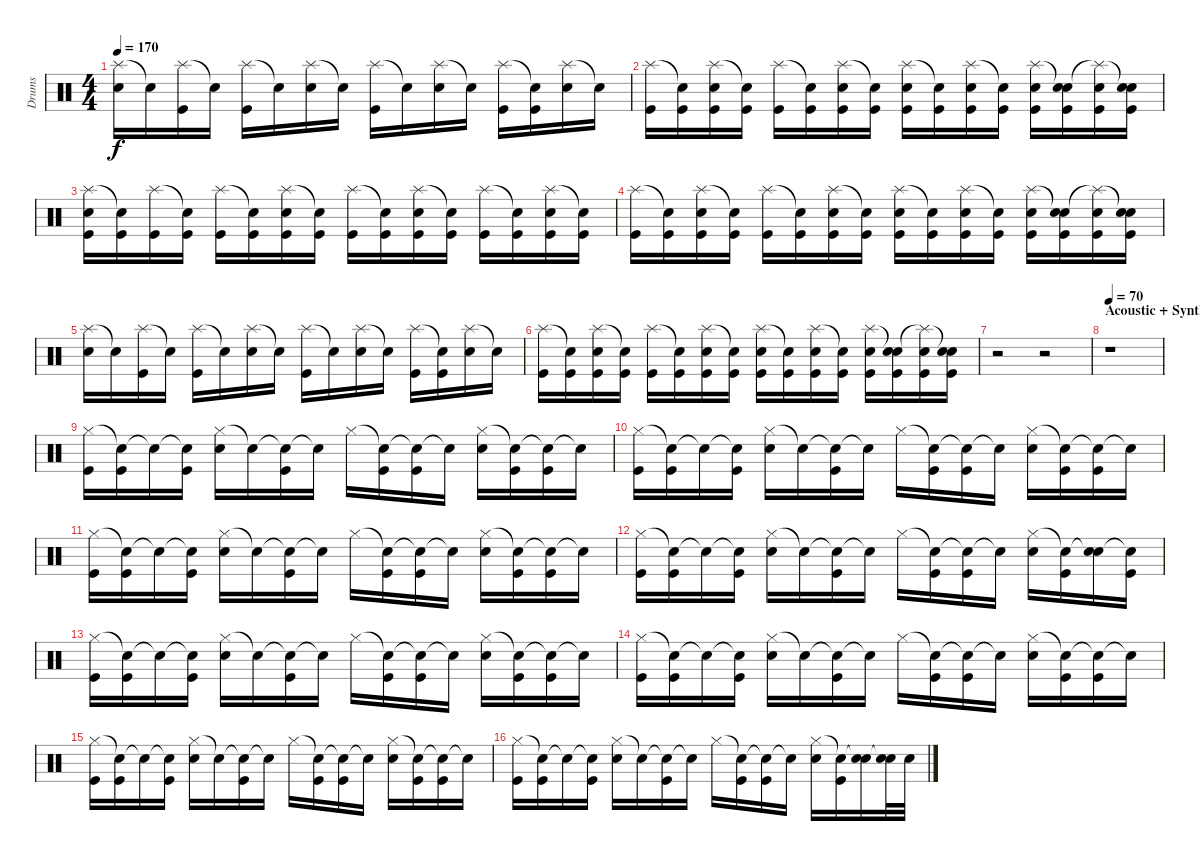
\track ("Drums" "Drums") {instrument percussion}
\staff {score}
\articulation defaults
\ts (4 4)
\tempo 170
\clef neutral
\ks c
("Splash (hit)" "Electric Snare (hit)").16{dy f} "Snare (hit)"{t}.16 ("Splash (hit)" "Kick (hit)").16 "Snare (hit)"{t}.16 ("Splash (hit)" "Kick (hit)").16 "Snare (hit)"{t}.16 ("Splash (hit)" "Electric Snare (hit)").16 "Snare (hit)"{t}.16 ("Splash (hit)" "Kick (hit)").16 "Snare (hit)"{t}.16 ("Splash (hit)" "Electric Snare (hit)").16 "Snare (hit)"{t}.16 ("Splash (hit)" "Kick (hit)").16 ("Snare (hit)"{t} "Kick (hit)").16 ("Splash (hit)" "Electric Snare (hit)").16 "Snare (hit)"{t}.16 |
("Splash (hit)" "Kick (hit)").16 ("Snare (hit)"{t} "Kick (hit)").16 ("Splash (hit)" "Electric Snare (hit)" "Kick (hit)").16 ("Snare (hit)"{t} "Kick (hit)").16 ("Splash (hit)" "Kick (hit)").16 ("Snare (hit)"{t} "Kick (hit)").16 ("Splash (hit)" "Electric Snare (hit)" "Kick (hit)").16 ("Snare (hit)"{t} "Kick (hit)").16 ("Splash (hit)" "Electric Snare (hit)" "Kick (hit)").16 ("Snare (hit)"{t} "Kick (hit)").16 ("Splash (hit)" "Electric Snare (hit)" "Kick (hit)").16 ("Snare (hit)"{t} "Kick (hit)").16 ("Splash (hit)" "Electric Snare (hit)" "Kick (hit)").16 ("Snare (hit)"{t} "Electric Snare (hit)" "Kick (hit)").16 ("Splash (hit)"{t} "Electric Snare (hit)" "Kick (hit)").16 ("Snare (hit)"{t} "Electric Snare (hit)" "Kick (hit)").16 |
("Splash (hit)" "Electric Snare (hit)" "Kick (hit)").16 ("Snare (hit)"{t} "Kick (hit)").16 ("Splash (hit)" "Kick (hit)").16 ("Snare (hit)"{t} "Kick (hit)").16 ("Splash (hit)" "Kick (hit)").16 ("Snare (hit)"{t} "Kick (hit)").16 ("Splash (hit)" "Electric Snare (hit)" "Kick (hit)").16 ("Snare (hit)"{t} "Kick (hit)").16 ("Splash (hit)" "Kick (hit)").16 ("Snare (hit)"{t} "Kick (hit)").16 ("Splash (hit)" "Electric Snare (hit)" "Kick (hit)").16 ("Snare (hit)"{t} "Kick (hit)").16 ("Splash (hit)" "Kick (hit)").16 ("Snare (hit)"{t} "Kick (hit)").16 ("Splash (hit)" "Electric Snare (hit)" "Kick (hit)").16 ("Snare (hit)"{t} "Kick (hit)").16 |
("Splash (hit)" "Kick (hit)").16 ("Snare (hit)"{t} "Kick (hit)").16 ("Splash (hit)" "Electric Snare (hit)" "Kick (hit)").16 ("Snare (hit)"{t} "Kick (hit)").16 ("Splash (hit)" "Kick (hit)").16 ("Snare (hit)"{t} "Kick (hit)").16 ("Splash (hit)" "Electric Snare (hit)" "Kick (hit)").16 ("Snare (hit)"{t} "Kick (hit)").16 ("Splash (hit)" "Electric Snare (hit)" "Kick (hit)").16 ("Snare (hit)"{t} "Kick (hit)").16 ("Splash (hit)" "Electric Snare (hit)" "Kick (hit)").16 ("Snare (hit)"{t} "Kick (hit)").16 ("Splash (hit)" "Electric Snare (hit)" "Kick (hit)").16 ("Snare (hit)"{t} "Electric Snare (hit)" "Kick (hit)").16 ("Splash (hit)"{t} "Electric Snare (hit)" "Kick (hit)").16 ("Snare (hit)"{t} "Electric Snare (hit)" "Kick (hit)").16 |
("Splash (hit)" "Electric Snare (hit)").16 "Snare (hit)"{t}.16 ("Splash (hit)" "Kick (hit)").16 "Snare (hit)"{t}.16 ("Splash (hit)" "Kick (hit)").16 "Snare (hit)"{t}.16 ("Splash (hit)" "Electric Snare (hit)").16 "Snare (hit)"{t}.16 ("Splash (hit)" "Kick (hit)").16 "Snare (hit)"{t}.16 ("Splash (hit)" "Electric Snare (hit)").16 "Snare (hit)"{t}.16 ("Splash (hit)" "Kick (hit)").16 ("Snare (hit)"{t} "Kick (hit)").16 ("Splash (hit)" "Electric Snare (hit)").16 "Snare (hit)"{t}.16 |
("Splash (hit)" "Kick (hit)").16 ("Snare (hit)"{t} "Kick (hit)").16 ("Splash (hit)" "Electric Snare (hit)" "Kick (hit)").16 ("Snare (hit)"{t} "Kick (hit)").16 ("Splash (hit)" "Kick (hit)").16 ("Snare (hit)"{t} "Kick (hit)").16 ("Splash (hit)" "Electric Snare (hit)" "Kick (hit)").16 ("Snare (hit)"{t} "Kick (hit)").16 ("Splash (hit)" "Electric Snare (hit)" "Kick (hit)").16 ("Snare (hit)"{t} "Kick (hit)").16 ("Splash (hit)" "Electric Snare (hit)" "Kick (hit)").16 ("Snare (hit)"{t} "Kick (hit)").16 ("Splash (hit)" "Electric Snare (hit)" "Kick (hit)").16 ("Snare (hit)"{t} "Electric Snare (hit)" "Kick (hit)").16 ("Splash (hit)"{t} "Electric Snare (hit)" "Kick (hit)").16 ("Snare (hit)"{t} "Electric Snare (hit)" "Kick (hit)").16 |
r.2 r.2 |
\section ("" "Acoustic + Synth Interlude")
\tempo 70
r.1 |
("Hi-Hat (closed)" "Kick (hit)").16 ("Snare (hit)"{t} "Kick (hit)").16 "Snare (hit)"{t}.16 ("Snare (hit)"{t} "Kick (hit)").16 ("Hi-Hat (closed)" "Electric Snare (hit)").16 "Snare (hit)"{t}.16 ("Snare (hit)"{t} "Kick (hit)").16 "Snare (hit)"{t}.16 "Hi-Hat (closed)".16 ("Snare (hit)"{t} "Kick (hit)").16 ("Snare (hit)"{t} "Kick (hit)").16 "Snare (hit)"{t}.16 ("Hi-Hat (closed)" "Electric Snare (hit)").16 ("Snare (hit)"{t} "Kick (hit)").16 ("Snare (hit)"{t} "Kick (hit)").16 "Snare (hit)"{t}.16 |
("Hi-Hat (closed)" "Kick (hit)").16 ("Snare (hit)"{t} "Kick (hit)").16 "Snare (hit)"{t}.16 ("Snare (hit)"{t} "Kick (hit)").16 ("Hi-Hat (closed)" "Electric Snare (hit)").16 "Snare (hit)"{t}.16 ("Snare (hit)"{t} "Kick (hit)").16 "Snare (hit)"{t}.16 "Hi-Hat (closed)".16 ("Snare (hit)"{t} "Kick (hit)").16 ("Snare (hit)"{t} "Kick (hit)").16 "Snare (hit)"{t}.16 ("Hi-Hat (closed)" "Electric Snare (hit)").16 ("Snare (hit)"{t} "Kick (hit)").16 ("Snare (hit)"{t} "Kick (hit)").16 "Snare (hit)"{t}.16 |
("Hi-Hat (closed)" "Kick (hit)").16 ("Snare (hit)"{t} "Kick (hit)").16 "Snare (hit)"{t}.16 ("Snare (hit)"{t} "Kick (hit)").16 ("Hi-Hat (closed)" "Electric Snare (hit)").16 "Snare (hit)"{t}.16 ("Snare (hit)"{t} "Kick (hit)").16 "Snare (hit)"{t}.16 "Hi-Hat (closed)".16 ("Snare (hit)"{t} "Kick (hit)").16 ("Snare (hit)"{t} "Kick (hit)").16 "Snare (hit)"{t}.16 ("Hi-Hat (closed)" "Electric Snare (hit)").16 ("Snare (hit)"{t} "Kick (hit)").16 ("Snare (hit)"{t} "Kick (hit)").16 "Snare (hit)"{t}.16 |
("Hi-Hat (closed)" "Kick (hit)").16 ("Snare (hit)"{t} "Kick (hit)").16 "Snare (hit)"{t}.16 ("Snare (hit)"{t} "Kick (hit)").16 ("Hi-Hat (closed)" "Electric Snare (hit)").16 "Snare (hit)"{t}.16 ("Snare (hit)"{t} "Kick (hit)").16 "Snare (hit)"{t}.16 "Hi-Hat (closed)".16 ("Snare (hit)"{t} "Kick (hit)").16 ("Snare (hit)"{t} "Kick (hit)").16 "Snare (hit)"{t}.16 ("Hi-Hat (closed)" "Electric Snare (hit)").16 ("Snare (hit)"{t} "Kick (hit)").16 ("Snare (hit)"{t} "Electric Snare (hit)").16 ("Snare (hit)"{t} "Kick (hit)").16 |
("Hi-Hat (closed)" "Kick (hit)").16 ("Snare (hit)"{t} "Kick (hit)").16 "Snare (hit)"{t}.16 ("Snare (hit)"{t} "Kick (hit)").16 ("Hi-Hat (closed)" "Electric Snare (hit)").16 "Snare (hit)"{t}.16 ("Snare (hit)"{t} "Kick (hit)").16 "Snare (hit)"{t}.16 "Hi-Hat (closed)".16 ("Snare (hit)"{t} "Kick (hit)").16 ("Snare (hit)"{t} "Kick (hit)").16 "Snare (hit)"{t}.16 ("Hi-Hat (closed)" "Electric Snare (hit)").16 ("Snare (hit)"{t} "Kick (hit)").16 ("Snare (hit)"{t} "Kick (hit)").16 "Snare (hit)"{t}.16 |
("Hi-Hat (closed)" "Kick (hit)").16 ("Snare (hit)"{t} "Kick (hit)").16 "Snare (hit)"{t}.16 ("Snare (hit)"{t} "Kick (hit)").16 ("Hi-Hat (closed)" "Electric Snare (hit)").16 "Snare (hit)"{t}.16 ("Snare (hit)"{t} "Kick (hit)").16 "Snare (hit)"{t}.16 "Hi-Hat (closed)".16 ("Snare (hit)"{t} "Kick (hit)").16 ("Snare (hit)"{t} "Kick (hit)").16 "Snare (hit)"{t}.16 ("Hi-Hat (closed)" "Electric Snare (hit)").16 ("Snare (hit)"{t} "Kick (hit)").16 ("Snare (hit)"{t} "Kick (hit)").16 "Snare (hit)"{t}.16 |
("Hi-Hat (closed)" "Kick (hit)").16 ("Snare (hit)"{t} "Kick (hit)").16 "Snare (hit)"{t}.16 ("Snare (hit)"{t} "Kick (hit)").16 ("Hi-Hat (closed)" "Electric Snare (hit)").16 "Snare (hit)"{t}.16 ("Snare (hit)"{t} "Kick (hit)").16 "Snare (hit)"{t}.16 "Hi-Hat (closed)".16 ("Snare (hit)"{t} "Kick (hit)").16 ("Snare (hit)"{t} "Kick (hit)").16 "Snare (hit)"{t}.16 ("Hi-Hat (closed)" "Electric Snare (hit)").16 ("Snare (hit)"{t} "Kick (hit)").16 ("Snare (hit)"{t} "Kick (hit)").16 "Snare (hit)"{t}.16 |
("Hi-Hat (closed)" "Kick (hit)").16 ("Snare (hit)"{t} "Kick (hit)").16 "Snare (hit)"{t}.16 ("Snare (hit)"{t} "Kick (hit)").16 ("Hi-Hat (closed)" "Electric Snare (hit)").16 "Snare (hit)"{t}.16 ("Snare (hit)"{t} "Kick (hit)").16 "Snare (hit)"{t}.16 "Hi-Hat (closed)".16 ("Snare (hit)"{t} "Kick (hit)").16 ("Snare (hit)"{t} "Kick (hit)").16 "Snare (hit)"{t}.16 ("Hi-Hat (closed)" "Electric Snare (hit)").16 ("Snare (hit)"{t} "Kick (hit)").16 ("Snare (hit)"{t} "Electric Snare (hit)").16 ("Snare (hit)"{t} "Electric Snare (hit)").32 "Electric Snare (hit)".32
